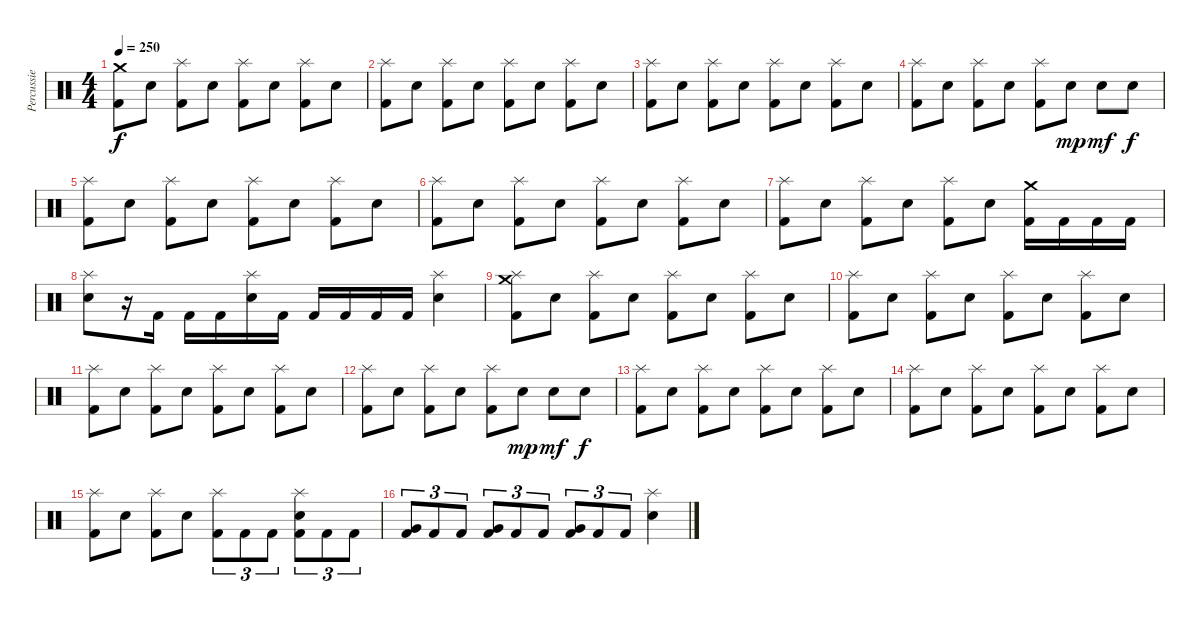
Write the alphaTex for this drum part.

\track ("Percussie" "Percussie") {instrument percussion}
\staff {score}
\articulation defaults
\ts (4 4)
\tempo 250
\clef neutral
\ks c
("Crash medium (hit)" "Kick (hit) 2").8{dy f} "Electric Snare (hit)".8 ("Splash (hit)" "Kick (hit) 2").8 "Electric Snare (hit)".8 ("Splash (hit)" "Kick (hit) 2").8 "Electric Snare (hit)".8 ("Splash (hit)" "Kick (hit) 2").8 "Electric Snare (hit)".8 |
("Splash (hit)" "Kick (hit) 2").8 "Electric Snare (hit)".8 ("Splash (hit)" "Kick (hit) 2").8 "Electric Snare (hit)".8 ("Splash (hit)" "Kick (hit) 2").8 "Electric Snare (hit)".8 ("Splash (hit)" "Kick (hit) 2").8 "Electric Snare (hit)".8 |
("Splash (hit)" "Kick (hit) 2").8 "Electric Snare (hit)".8 ("Splash (hit)" "Kick (hit) 2").8 "Electric Snare (hit)".8 ("Splash (hit)" "Kick (hit) 2").8 "Electric Snare (hit)".8 ("Splash (hit)" "Kick (hit) 2").8 "Electric Snare (hit)".8 |
("Splash (hit)" "Kick (hit) 2").8 "Electric Snare (hit)".8 ("Splash (hit)" "Kick (hit) 2").8 "Electric Snare (hit)".8 ("Splash (hit)" "Kick (hit) 2").8 "Electric Snare (hit)".8{dy mp} "Electric Snare (hit)".8{dy mf} "Electric Snare (hit)".8{dy f} |
("Splash (hit)" "Kick (hit) 2").8 "Electric Snare (hit)".8 ("Splash (hit)" "Kick (hit) 2").8 "Electric Snare (hit)".8 ("Splash (hit)" "Kick (hit) 2").8 "Electric Snare (hit)".8 ("Splash (hit)" "Kick (hit) 2").8 "Electric Snare (hit)".8 |
("Splash (hit)" "Kick (hit) 2").8 "Electric Snare (hit)".8 ("Splash (hit)" "Kick (hit) 2").8 "Electric Snare (hit)".8 ("Splash (hit)" "Kick (hit) 2").8 "Electric Snare (hit)".8 ("Splash (hit)" "Kick (hit) 2").8 "Electric Snare (hit)".8 |
("Splash (hit)" "Kick (hit) 2").8 "Electric Snare (hit)".8 ("Splash (hit)" "Kick (hit) 2").8 "Electric Snare (hit)".8 ("Splash (hit)" "Kick (hit) 2").8 "Electric Snare (hit)".8 ("Crash medium (hit)" "Kick (hit) 2").16 "Kick (hit) 2".16 "Kick (hit) 2".16 "Kick (hit) 2".16 |
("Splash (hit)" "Electric Snare (hit)").8 r.16 "Kick (hit) 2".16 "Kick (hit) 2".16 "Kick (hit) 2".16 ("Splash (hit)" "Electric Snare (hit)").16 "Kick (hit) 2".16 "Kick (hit) 2".16 "Kick (hit) 2".16 "Kick (hit) 2".16 "Kick (hit) 2".16 ("Splash (hit)" "Electric Snare (hit)").4 |
("Crash medium (hit)" "Splash (hit)" "Kick (hit) 2").8 "Electric Snare (hit)".8 ("Splash (hit)" "Kick (hit) 2").8 "Electric Snare (hit)".8 ("Splash (hit)" "Kick (hit) 2").8 "Electric Snare (hit)".8 ("Splash (hit)" "Kick (hit) 2").8 "Electric Snare (hit)".8 |
("Splash (hit)" "Kick (hit) 2").8 "Electric Snare (hit)".8 ("Splash (hit)" "Kick (hit) 2").8 "Electric Snare (hit)".8 ("Splash (hit)" "Kick (hit) 2").8 "Electric Snare (hit)".8 ("Splash (hit)" "Kick (hit) 2").8 "Electric Snare (hit)".8 |
("Splash (hit)" "Kick (hit) 2").8 "Electric Snare (hit)".8 ("Splash (hit)" "Kick (hit) 2").8 "Electric Snare (hit)".8 ("Splash (hit)" "Kick (hit) 2").8 "Electric Snare (hit)".8 ("Splash (hit)" "Kick (hit) 2").8 "Electric Snare (hit)".8 |
("Splash (hit)" "Kick (hit) 2").8 "Electric Snare (hit)".8 ("Splash (hit)" "Kick (hit) 2").8 "Electric Snare (hit)".8 ("Splash (hit)" "Kick (hit) 2").8 "Electric Snare (hit)".8{dy mp} "Electric Snare (hit)".8{dy mf} "Electric Snare (hit)".8{dy f} |
("Splash (hit)" "Kick (hit) 2").8 "Electric Snare (hit)".8 ("Splash (hit)" "Kick (hit) 2").8 "Electric Snare (hit)".8 ("Splash (hit)" "Kick (hit) 2").8 "Electric Snare (hit)".8 ("Splash (hit)" "Kick (hit) 2").8 "Electric Snare (hit)".8 |
("Splash (hit)" "Kick (hit) 2").8 "Electric Snare (hit)".8 ("Splash (hit)" "Kick (hit) 2").8 "Electric Snare (hit)".8 ("Splash (hit)" "Kick (hit) 2").8 "Electric Snare (hit)".8 ("Splash (hit)" "Kick (hit) 2").8 "Electric Snare (hit)".8 |
("Splash (hit)" "Kick (hit) 2").8 "Electric Snare (hit)".8 ("Splash (hit)" "Kick (hit) 2").8 "Electric Snare (hit)".8 ("Splash (hit)" "Kick (hit) 2").8{tu (3 2)} "Kick (hit) 2".8{tu (3 2)} "Kick (hit) 2".8{tu (3 2)} ("Splash (hit)" "Electric Snare (hit)" "Kick (hit) 2").8{tu (3 2)} "Kick (hit) 2".8{tu (3 2)} "Kick (hit) 2".8{tu (3 2)} |
("Very Low Tom (hit)" "Kick (hit) 2").8{tu (3 2)} "Kick (hit) 2".8{tu (3 2)} "Kick (hit) 2".8{tu (3 2)} ("Very Low Tom (hit)" "Kick (hit) 2").8{tu (3 2)} "Kick (hit) 2".8{tu (3 2)} "Kick (hit) 2".8{tu (3 2)} ("Very Low Tom (hit)" "Kick (hit) 2").8{tu (3 2)} "Kick (hit) 2".8{tu (3 2)} "Kick (hit) 2".8{tu (3 2)} ("Splash (hit)" "Electric Snare (hit)").4
